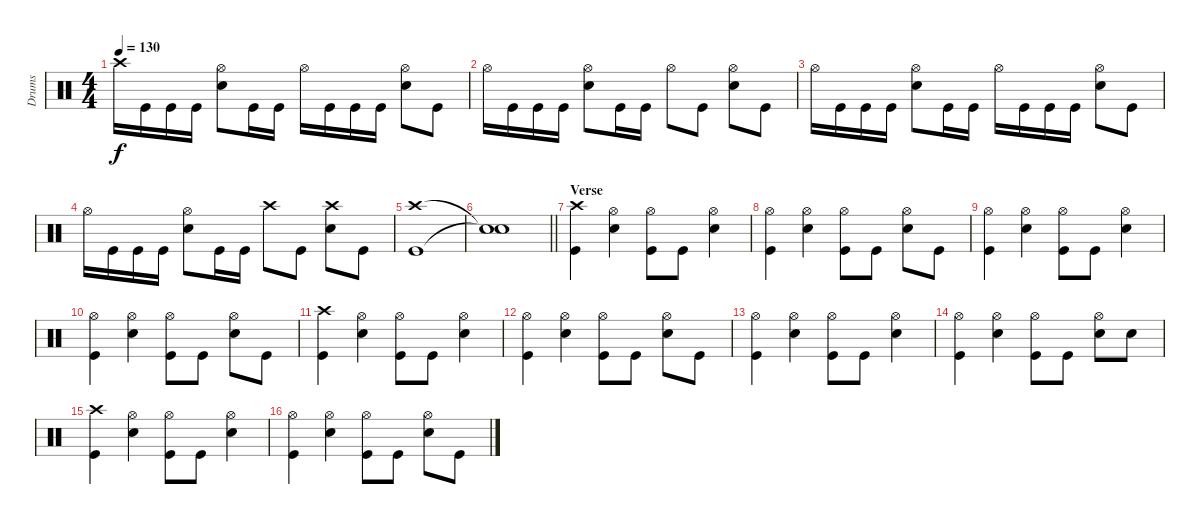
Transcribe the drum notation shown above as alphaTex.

\track ("Drums" "Drums") {instrument percussion}
\staff {score}
\articulation defaults
\ts (4 4)
\tempo 130
\clef neutral
\ks c "Crash high (hit)".16{dy f} "Kick (hit)".16 "Kick (hit)".16 "Kick (hit)".16
("Hi-Hat (open)" "Electric Snare (hit)").8 "Kick (hit)".16 "Kick (hit)".16 "Hi-Hat (open)".16 "Kick (hit)".16 "Kick (hit)".16 "Kick (hit)".16 ("Hi-Hat (open)" "Electric Snare (hit)").8 "Kick (hit)".8 |
"Hi-Hat (open)".16 "Kick (hit)".16 "Kick (hit)".16 "Kick (hit)".16 ("Hi-Hat (open)" "Electric Snare (hit)").8 "Kick (hit)".16 "Kick (hit)".16 "Hi-Hat (open)".8 "Kick (hit)".8 ("Hi-Hat (open)" "Electric Snare (hit)").8 "Kick (hit)".8 |
"Hi-Hat (open)".16 "Kick (hit)".16 "Kick (hit)".16 "Kick (hit)".16 ("Hi-Hat (open)" "Electric Snare (hit)").8 "Kick (hit)".16 "Kick (hit)".16 "Hi-Hat (open)".16 "Kick (hit)".16 "Kick (hit)".16 "Kick (hit)".16 ("Hi-Hat (open)" "Electric Snare (hit)").8 "Kick (hit)".8 |
"Hi-Hat (open)".16 "Kick (hit)".16 "Kick (hit)".16 "Kick (hit)".16 ("Hi-Hat (open)" "Electric Snare (hit)").8 "Kick (hit)".16 "Kick (hit)".16 "Crash high (hit)".8 "Kick (hit)".8 ("Crash high (hit)" "Electric Snare (hit)").8 "Kick (hit)".8 |
("Crash high (hit)" "Kick (hit)").1 |
\barLineRight lightlight
("Snare (hit)"{t} "Snare (hit)"{t}).1 |
\section ("" "Verse ")
("Crash high (hit)" "Kick (hit)").4 ("Hi-Hat (open)" "Electric Snare (hit)").4 ("Hi-Hat (open)" "Kick (hit)").8 "Kick (hit)".8 ("Hi-Hat (open)" "Electric Snare (hit)").4 |
("Hi-Hat (open)" "Kick (hit)").4 ("Hi-Hat (open)" "Electric Snare (hit)").4 ("Hi-Hat (open)" "Kick (hit)").8 "Kick (hit)".8 ("Hi-Hat (open)" "Electric Snare (hit)").8 "Kick (hit)".8 |
("Hi-Hat (open)" "Kick (hit)").4 ("Hi-Hat (open)" "Electric Snare (hit)").4 ("Hi-Hat (open)" "Kick (hit)").8 "Kick (hit)".8 ("Hi-Hat (open)" "Electric Snare (hit)").4 |
("Hi-Hat (open)" "Kick (hit)").4 ("Hi-Hat (open)" "Electric Snare (hit)").4 ("Hi-Hat (open)" "Kick (hit)").8 "Kick (hit)".8 ("Hi-Hat (open)" "Electric Snare (hit)").8 "Kick (hit)".8 |
("Crash high (hit)" "Kick (hit)").4 ("Hi-Hat (open)" "Electric Snare (hit)").4 ("Hi-Hat (open)" "Kick (hit)").8 "Kick (hit)".8 ("Hi-Hat (open)" "Electric Snare (hit)").4 |
("Hi-Hat (open)" "Kick (hit)").4 ("Hi-Hat (open)" "Electric Snare (hit)").4 ("Hi-Hat (open)" "Kick (hit)").8 "Kick (hit)".8 ("Hi-Hat (open)" "Electric Snare (hit)").8 "Kick (hit)".8 |
("Hi-Hat (open)" "Kick (hit)").4 ("Hi-Hat (open)" "Electric Snare (hit)").4 ("Hi-Hat (open)" "Kick (hit)").8 "Kick (hit)".8 ("Hi-Hat (open)" "Electric Snare (hit)").4 |
("Hi-Hat (open)" "Kick (hit)").4 ("Hi-Hat (open)" "Electric Snare (hit)").4 ("Hi-Hat (open)" "Kick (hit)").8 "Kick (hit)".8 ("Hi-Hat (open)" "Electric Snare (hit)").8 "Electric Snare (hit)".8 |
("Crash high (hit)" "Kick (hit)").4 ("Hi-Hat (open)" "Electric Snare (hit)").4 ("Hi-Hat (open)" "Kick (hit)").8 "Kick (hit)".8 ("Hi-Hat (open)" "Electric Snare (hit)").4 |
("Hi-Hat (open)" "Kick (hit)").4 ("Hi-Hat (open)" "Electric Snare (hit)").4 ("Hi-Hat (open)" "Kick (hit)").8 "Kick (hit)".8 ("Hi-Hat (open)" "Electric Snare (hit)").8 "Kick (hit)".8
